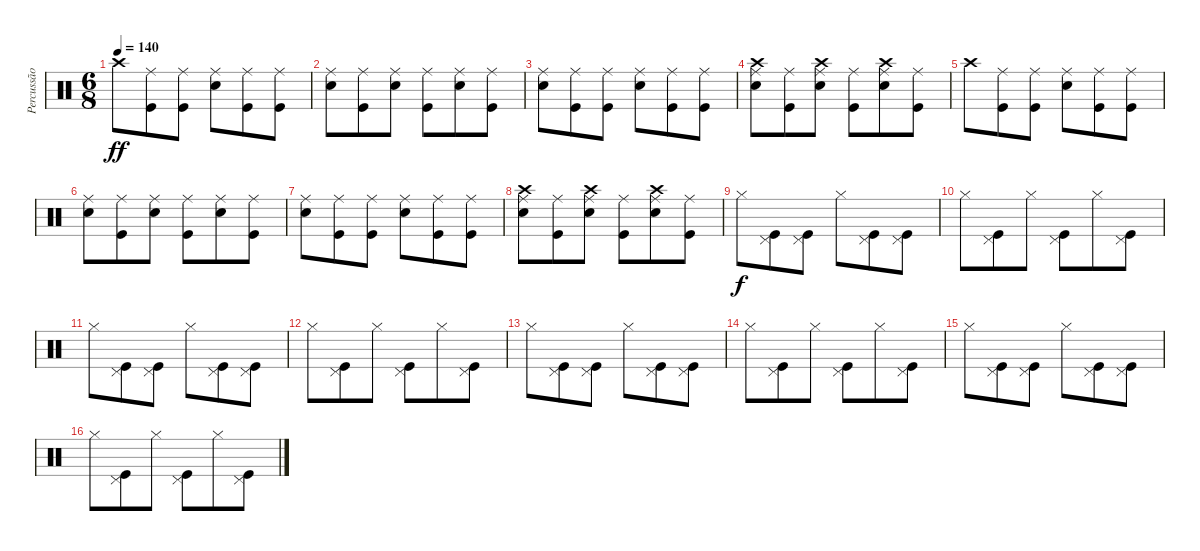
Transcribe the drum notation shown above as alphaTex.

\track ("Percussão" "Percussão") {instrument percussion}
\staff {score}
\articulation defaults
\ts (6 8)
\tempo 140
\clef neutral
\ks c "Crash high (hit)".8{dy ff}
("Ride (middle)" "Kick (hit)").8 ("Ride (middle)" "Kick (hit)").8 ("Ride (middle)" "Snare (hit) 2").8 ("Ride (middle)" "Kick (hit)").8 ("Ride (middle)" "Kick (hit)").8 |
("Ride (middle)" "Snare (hit) 2").8 ("Ride (middle)" "Kick (hit)").8 ("Ride (middle)" "Snare (hit) 2").8 ("Ride (middle)" "Kick (hit)").8 ("Ride (middle)" "Snare (hit) 2").8 ("Ride (middle)" "Kick (hit)").8 |
("Ride (middle)" "Snare (hit) 2").8 ("Ride (middle)" "Kick (hit)").8 ("Ride (middle)" "Kick (hit)").8 ("Ride (middle)" "Snare (hit) 2").8 ("Ride (middle)" "Kick (hit)").8 ("Ride (middle)" "Kick (hit)").8 |
("Crash high (hit)" "Ride (middle)" "Snare (hit) 2").8 ("Ride (middle)" "Kick (hit)").8 ("Crash high (hit)" "Ride (middle)" "Snare (hit) 2").8 ("Ride (middle)" "Kick (hit)").8 ("Crash high (hit)" "Ride (middle)" "Snare (hit) 2").8 ("Ride (middle)" "Kick (hit)").8 |
"Crash high (hit)".8 ("Ride (middle)" "Kick (hit)").8 ("Ride (middle)" "Kick (hit)").8 ("Ride (middle)" "Snare (hit) 2").8 ("Ride (middle)" "Kick (hit)").8 ("Ride (middle)" "Kick (hit)").8 |
("Ride (middle)" "Snare (hit) 2").8 ("Ride (middle)" "Kick (hit)").8 ("Ride (middle)" "Snare (hit) 2").8 ("Ride (middle)" "Kick (hit)").8 ("Ride (middle)" "Snare (hit) 2").8 ("Ride (middle)" "Kick (hit)").8 |
("Ride (middle)" "Snare (hit) 2").8 ("Ride (middle)" "Kick (hit)").8 ("Ride (middle)" "Kick (hit)").8 ("Ride (middle)" "Snare (hit) 2").8 ("Ride (middle)" "Kick (hit)").8 ("Ride (middle)" "Kick (hit)").8 |
("Crash high (hit)" "Ride (middle)" "Snare (hit) 2").8 ("Ride (middle)" "Kick (hit)").8 ("Crash high (hit)" "Ride (middle)" "Snare (hit) 2").8 ("Ride (middle)" "Kick (hit)").8 ("Crash high (hit)" "Ride (middle)" "Snare (hit) 2").8 ("Ride (middle)" "Kick (hit)").8 |
"Hi-Hat (closed)".8{dy f} ("Pedal Hi-Hat (hit)" "Kick (hit)").8 ("Pedal Hi-Hat (hit)" "Kick (hit)").8 "Hi-Hat (closed)".8 ("Pedal Hi-Hat (hit)" "Kick (hit)").8 ("Pedal Hi-Hat (hit)" "Kick (hit)").8 |
"Hi-Hat (closed)".8 ("Pedal Hi-Hat (hit)" "Kick (hit)").8 "Hi-Hat (closed)".8 ("Pedal Hi-Hat (hit)" "Kick (hit)").8 "Hi-Hat (closed)".8 ("Pedal Hi-Hat (hit)" "Kick (hit)").8 |
"Hi-Hat (closed)".8 ("Pedal Hi-Hat (hit)" "Kick (hit)").8 ("Pedal Hi-Hat (hit)" "Kick (hit)").8 "Hi-Hat (closed)".8 ("Pedal Hi-Hat (hit)" "Kick (hit)").8 ("Pedal Hi-Hat (hit)" "Kick (hit)").8 |
"Hi-Hat (closed)".8 ("Pedal Hi-Hat (hit)" "Kick (hit)").8 "Hi-Hat (closed)".8 ("Pedal Hi-Hat (hit)" "Kick (hit)").8 "Hi-Hat (closed)".8 ("Pedal Hi-Hat (hit)" "Kick (hit)").8 |
"Hi-Hat (closed)".8 ("Pedal Hi-Hat (hit)" "Kick (hit)").8 ("Pedal Hi-Hat (hit)" "Kick (hit)").8 "Hi-Hat (closed)".8 ("Pedal Hi-Hat (hit)" "Kick (hit)").8 ("Pedal Hi-Hat (hit)" "Kick (hit)").8 |
"Hi-Hat (closed)".8 ("Pedal Hi-Hat (hit)" "Kick (hit)").8 "Hi-Hat (closed)".8 ("Pedal Hi-Hat (hit)" "Kick (hit)").8 "Hi-Hat (closed)".8 ("Pedal Hi-Hat (hit)" "Kick (hit)").8 |
"Hi-Hat (closed)".8 ("Pedal Hi-Hat (hit)" "Kick (hit)").8 ("Pedal Hi-Hat (hit)" "Kick (hit)").8 "Hi-Hat (closed)".8 ("Pedal Hi-Hat (hit)" "Kick (hit)").8 ("Pedal Hi-Hat (hit)" "Kick (hit)").8 |
"Hi-Hat (closed)".8 ("Pedal Hi-Hat (hit)" "Kick (hit)").8 "Hi-Hat (closed)".8 ("Pedal Hi-Hat (hit)" "Kick (hit)").8 "Hi-Hat (closed)".8 ("Pedal Hi-Hat (hit)" "Kick (hit)").8
